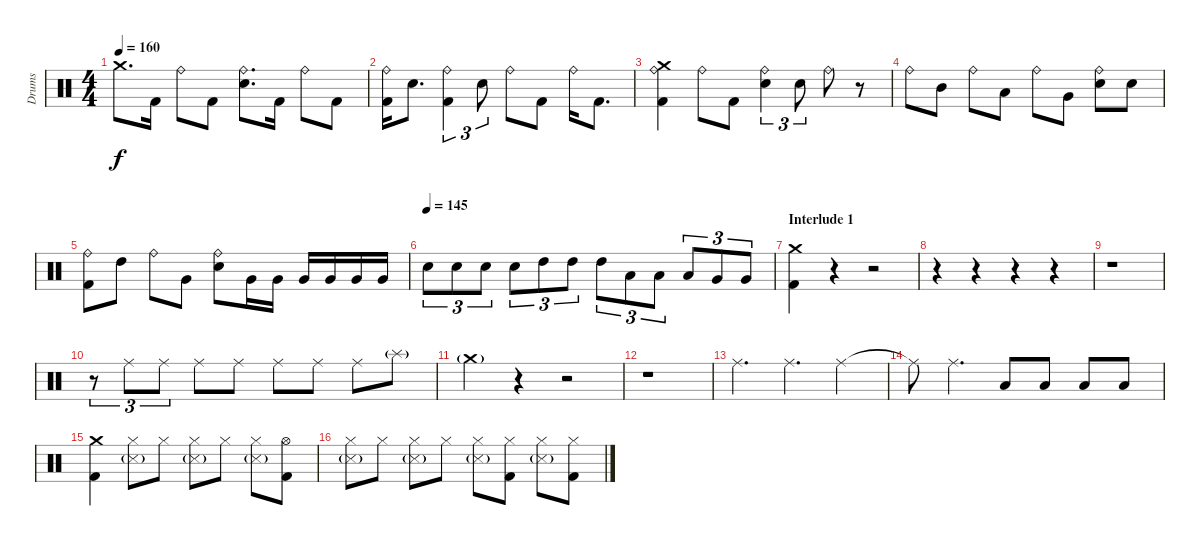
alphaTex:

\track ("Drums" "Drums") {instrument percussion}
\staff {score}
\articulation defaults
\ts (4 4)
\tempo 160
\clef neutral
\ks c "Crash medium (hit)".8{d dy f} "Kick (hit) 2".16 "Ride (bell)".8 "Kick (hit) 2".8
("Ride (bell)" "Snare (hit) 2").8{d} "Kick (hit) 2".16 "Ride (bell)".8 "Kick (hit) 2".8 |
("Ride (bell)" "Kick (hit) 2").16 "Snare (hit) 2".8{d} ("Ride (bell)" "Kick (hit) 2").4{tu (3 2)} "Snare (hit) 2".8{tu (3 2)} "Ride (bell)".8 "Kick (hit) 2".8 "Ride (bell)".16 "Kick (hit) 2".8{d} |
("Crash medium (hit)" "Ride (bell)" "Kick (hit) 2").4 "Ride (bell)".8 "Kick (hit) 2".8 ("Ride (bell)" "Snare (hit) 2").4{tu (3 2)} "Snare (hit) 2".8{tu (3 2)} "Ride (bell)".8 r.8 |
"Ride (bell)".8 "Mid Tom (hit)".8 "Ride (bell)".8 "Low Tom (hit)".8 "Ride (bell)".8 "Very Low Tom (hit)".8 ("Ride (bell)" "Snare (hit) 2").8 "Snare (hit) 2".8 |
("Ride (bell)" "Kick (hit) 2").8 "High Tom (hit)".8 "Ride (bell)".8 "Very Low Tom (hit)".8 ("Ride (bell)" "Snare (hit) 2").8 "Very Low Tom (hit)".16 "Very Low Tom (hit)".16 "Very Low Tom (hit)".16 "Very Low Tom (hit)".16 "Very Low Tom (hit)".16 "Very Low Tom (hit)".16 |
\tempo (145)
"Snare (hit) 2".8{tu (3 2)} "Snare (hit) 2".8{tu (3 2)} "Snare (hit) 2".8{tu (3 2)} "Snare (hit) 2".8{tu (3 2)} "High Tom (hit)".8{tu (3 2)} "High Tom (hit)".8{tu (3 2)} "High Tom (hit)".8{tu (3 2)} "Low Tom (hit)".8{tu (3 2)} "Low Tom (hit)".8{tu (3 2)} "Low Tom (hit)".8{tu (3 2)} "Very Low Tom (hit)".8{tu (3 2)} "Very Low Tom (hit)".8{tu (3 2)} |
\section ("" "Interlude 1")
("Crash medium (hit)" "Kick (hit) 2").4 r.4 r.2 |
r.4 r.4 r.4 r.4 |
r.1 |
r.8{tu (3 2)} "Ride (middle)".8{tu (3 2)} "Ride (middle)".8{tu (3 2)} "Ride (middle)".8 "Ride (middle)".8 "Ride (middle)".8 "Ride (middle)".8 "Ride (middle)".8 "Splash (hit)"{g}.8 |
"Crash medium (hit)"{g}.4 r.4 r.2 |
r.1 |
"Ride (middle)".4{d} "Ride (middle)".4{d} "Ride (middle)".4 |
"Ride (middle)"{t}.8 "Ride (middle)".4{d} "Low Tom (hit)".8 "Low Tom (hit)".8 "Low Tom (hit)".8 "Low Tom (hit)".8 |
("Crash medium (hit)" "Kick (hit) 2").4 ("Hi-Hat (closed)" "Snare (side stick) 3"{g}).8 "Hi-Hat (closed)".8 ("Hi-Hat (closed)" "Snare (side stick) 3"{g}).8 "Hi-Hat (closed)".8 ("Hi-Hat (closed)" "Snare (side stick) 3"{g}).8 ("Hi-Hat (open)" "Kick (hit) 2").8 |
("Hi-Hat (closed)" "Snare (side stick) 3"{g}).8 "Hi-Hat (closed)".8 ("Hi-Hat (closed)" "Snare (side stick) 3"{g}).8 "Hi-Hat (closed)".8 ("Hi-Hat (closed)" "Snare (side stick) 3"{g}).8 ("Hi-Hat (closed)" "Kick (hit) 2").8 ("Hi-Hat (closed)" "Snare (side stick) 3"{g}).8 ("Hi-Hat (closed)" "Kick (hit) 2").8
